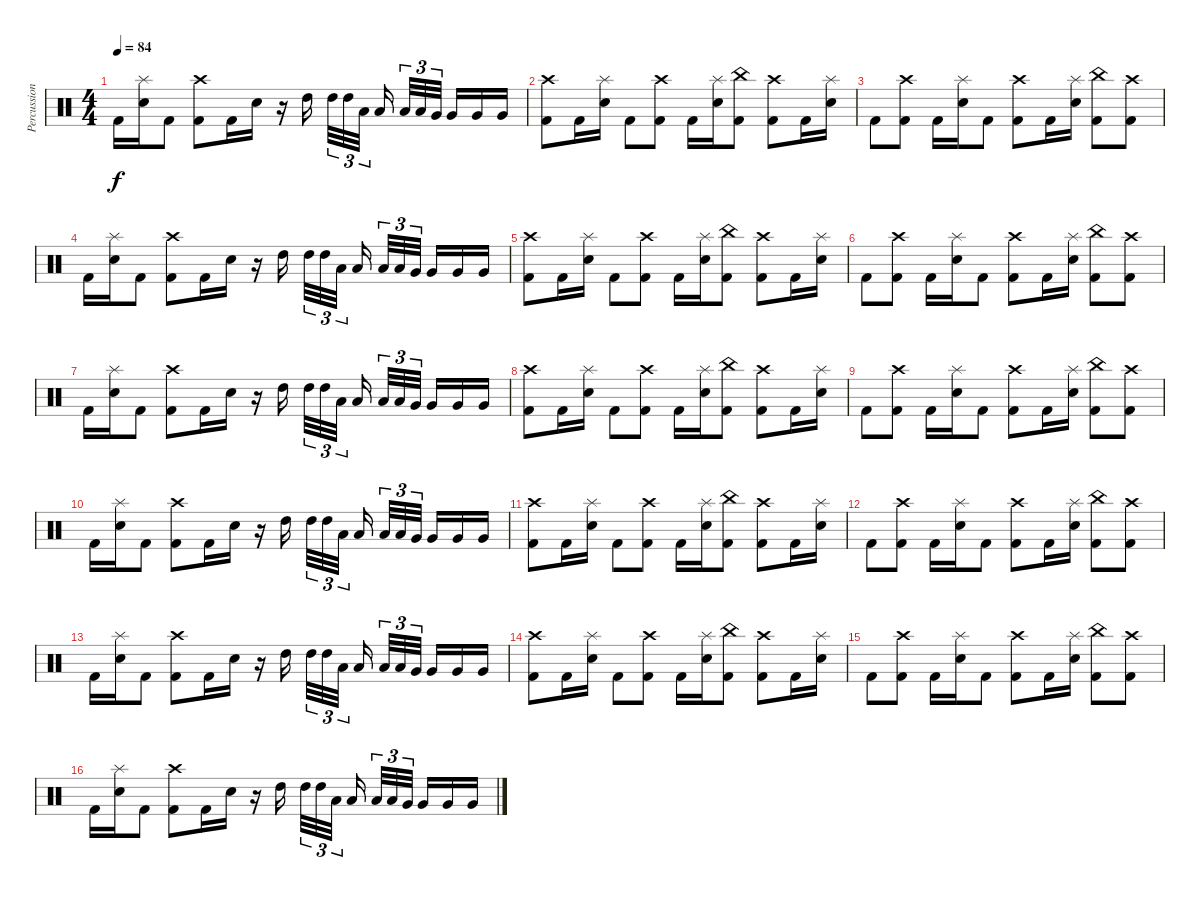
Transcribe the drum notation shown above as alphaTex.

\track ("Percussion" "Percussion") {instrument percussion}
\staff {score}
\articulation defaults
\ts (4 4)
\tempo 84
\clef neutral
\ks c "Kick (hit) 2".16{dy f}
("Splash (hit)" "Electric Snare (hit)").16 "Kick (hit) 2".8 ("Crash high (hit)" "Kick (hit) 2").8 "Kick (hit) 2".16 "Electric Snare (hit)".16 r.16 "High Tom (hit)".16 "High Tom (hit)".32{tu (3 2)} "High Tom (hit)".32{tu (3 2)} "Low Tom (hit)".32{tu (3 2)} "Low Tom (hit)".16 "Low Tom (hit)".32{tu (3 2)} "Low Tom (hit)".32{tu (3 2)} "Very Low Tom (hit)".32{tu (3 2)} "Very Low Tom (hit)".16 "Very Low Tom (hit)".16 "Very Low Tom (hit)".16 |
("Crash high (hit)" "Kick (hit) 2").8 "Kick (hit) 2".16 ("Splash (hit)" "Electric Snare (hit)").16 "Kick (hit) 2".8 ("Crash high (hit)" "Kick (hit) 2").8 "Kick (hit) 2".16 ("Splash (hit)" "Electric Snare (hit)").16 ("China (hit)" "Kick (hit) 2").8 ("Crash high (hit)" "Kick (hit) 2").8 "Kick (hit) 2".16 ("Splash (hit)" "Electric Snare (hit)").16 |
"Kick (hit) 2".8 ("Crash high (hit)" "Kick (hit) 2").8 "Kick (hit) 2".16 ("Splash (hit)" "Electric Snare (hit)").16 "Kick (hit) 2".8 ("Crash high (hit)" "Kick (hit) 2").8 "Kick (hit) 2".16 ("Splash (hit)" "Electric Snare (hit)").16 ("China (hit)" "Kick (hit) 2").8 ("Crash high (hit)" "Kick (hit) 2").8 |
"Kick (hit) 2".16 ("Splash (hit)" "Electric Snare (hit)").16 "Kick (hit) 2".8 ("Crash high (hit)" "Kick (hit) 2").8 "Kick (hit) 2".16 "Electric Snare (hit)".16 r.16 "High Tom (hit)".16 "High Tom (hit)".32{tu (3 2)} "High Tom (hit)".32{tu (3 2)} "Low Tom (hit)".32{tu (3 2)} "Low Tom (hit)".16 "Low Tom (hit)".32{tu (3 2)} "Low Tom (hit)".32{tu (3 2)} "Very Low Tom (hit)".32{tu (3 2)} "Very Low Tom (hit)".16 "Very Low Tom (hit)".16 "Very Low Tom (hit)".16 |
("Crash high (hit)" "Kick (hit) 2").8 "Kick (hit) 2".16 ("Splash (hit)" "Electric Snare (hit)").16 "Kick (hit) 2".8 ("Crash high (hit)" "Kick (hit) 2").8 "Kick (hit) 2".16 ("Splash (hit)" "Electric Snare (hit)").16 ("China (hit)" "Kick (hit) 2").8 ("Crash high (hit)" "Kick (hit) 2").8 "Kick (hit) 2".16 ("Splash (hit)" "Electric Snare (hit)").16 |
"Kick (hit) 2".8 ("Crash high (hit)" "Kick (hit) 2").8 "Kick (hit) 2".16 ("Splash (hit)" "Electric Snare (hit)").16 "Kick (hit) 2".8 ("Crash high (hit)" "Kick (hit) 2").8 "Kick (hit) 2".16 ("Splash (hit)" "Electric Snare (hit)").16 ("China (hit)" "Kick (hit) 2").8 ("Crash high (hit)" "Kick (hit) 2").8 |
"Kick (hit) 2".16 ("Splash (hit)" "Electric Snare (hit)").16 "Kick (hit) 2".8 ("Crash high (hit)" "Kick (hit) 2").8 "Kick (hit) 2".16 "Electric Snare (hit)".16 r.16 "High Tom (hit)".16 "High Tom (hit)".32{tu (3 2)} "High Tom (hit)".32{tu (3 2)} "Low Tom (hit)".32{tu (3 2)} "Low Tom (hit)".16 "Low Tom (hit)".32{tu (3 2)} "Low Tom (hit)".32{tu (3 2)} "Very Low Tom (hit)".32{tu (3 2)} "Very Low Tom (hit)".16 "Very Low Tom (hit)".16 "Very Low Tom (hit)".16 |
("Crash high (hit)" "Kick (hit) 2").8 "Kick (hit) 2".16 ("Splash (hit)" "Electric Snare (hit)").16 "Kick (hit) 2".8 ("Crash high (hit)" "Kick (hit) 2").8 "Kick (hit) 2".16 ("Splash (hit)" "Electric Snare (hit)").16 ("China (hit)" "Kick (hit) 2").8 ("Crash high (hit)" "Kick (hit) 2").8 "Kick (hit) 2".16 ("Splash (hit)" "Electric Snare (hit)").16 |
"Kick (hit) 2".8 ("Crash high (hit)" "Kick (hit) 2").8 "Kick (hit) 2".16 ("Splash (hit)" "Electric Snare (hit)").16 "Kick (hit) 2".8 ("Crash high (hit)" "Kick (hit) 2").8 "Kick (hit) 2".16 ("Splash (hit)" "Electric Snare (hit)").16 ("China (hit)" "Kick (hit) 2").8 ("Crash high (hit)" "Kick (hit) 2").8 |
"Kick (hit) 2".16 ("Splash (hit)" "Electric Snare (hit)").16 "Kick (hit) 2".8 ("Crash high (hit)" "Kick (hit) 2").8 "Kick (hit) 2".16 "Electric Snare (hit)".16 r.16 "High Tom (hit)".16 "High Tom (hit)".32{tu (3 2)} "High Tom (hit)".32{tu (3 2)} "Low Tom (hit)".32{tu (3 2)} "Low Tom (hit)".16 "Low Tom (hit)".32{tu (3 2)} "Low Tom (hit)".32{tu (3 2)} "Very Low Tom (hit)".32{tu (3 2)} "Very Low Tom (hit)".16 "Very Low Tom (hit)".16 "Very Low Tom (hit)".16 |
("Crash high (hit)" "Kick (hit) 2").8 "Kick (hit) 2".16 ("Splash (hit)" "Electric Snare (hit)").16 "Kick (hit) 2".8 ("Crash high (hit)" "Kick (hit) 2").8 "Kick (hit) 2".16 ("Splash (hit)" "Electric Snare (hit)").16 ("China (hit)" "Kick (hit) 2").8 ("Crash high (hit)" "Kick (hit) 2").8 "Kick (hit) 2".16 ("Splash (hit)" "Electric Snare (hit)").16 |
"Kick (hit) 2".8 ("Crash high (hit)" "Kick (hit) 2").8 "Kick (hit) 2".16 ("Splash (hit)" "Electric Snare (hit)").16 "Kick (hit) 2".8 ("Crash high (hit)" "Kick (hit) 2").8 "Kick (hit) 2".16 ("Splash (hit)" "Electric Snare (hit)").16 ("China (hit)" "Kick (hit) 2").8 ("Crash high (hit)" "Kick (hit) 2").8 |
"Kick (hit) 2".16 ("Splash (hit)" "Electric Snare (hit)").16 "Kick (hit) 2".8 ("Crash high (hit)" "Kick (hit) 2").8 "Kick (hit) 2".16 "Electric Snare (hit)".16 r.16 "High Tom (hit)".16 "High Tom (hit)".32{tu (3 2)} "High Tom (hit)".32{tu (3 2)} "Low Tom (hit)".32{tu (3 2)} "Low Tom (hit)".16 "Low Tom (hit)".32{tu (3 2)} "Low Tom (hit)".32{tu (3 2)} "Very Low Tom (hit)".32{tu (3 2)} "Very Low Tom (hit)".16 "Very Low Tom (hit)".16 "Very Low Tom (hit)".16 |
("Crash high (hit)" "Kick (hit) 2").8 "Kick (hit) 2".16 ("Splash (hit)" "Electric Snare (hit)").16 "Kick (hit) 2".8 ("Crash high (hit)" "Kick (hit) 2").8 "Kick (hit) 2".16 ("Splash (hit)" "Electric Snare (hit)").16 ("China (hit)" "Kick (hit) 2").8 ("Crash high (hit)" "Kick (hit) 2").8 "Kick (hit) 2".16 ("Splash (hit)" "Electric Snare (hit)").16 |
"Kick (hit) 2".8 ("Crash high (hit)" "Kick (hit) 2").8 "Kick (hit) 2".16 ("Splash (hit)" "Electric Snare (hit)").16 "Kick (hit) 2".8 ("Crash high (hit)" "Kick (hit) 2").8 "Kick (hit) 2".16 ("Splash (hit)" "Electric Snare (hit)").16 ("China (hit)" "Kick (hit) 2").8 ("Crash high (hit)" "Kick (hit) 2").8 |
"Kick (hit) 2".16 ("Splash (hit)" "Electric Snare (hit)").16 "Kick (hit) 2".8 ("Crash high (hit)" "Kick (hit) 2").8 "Kick (hit) 2".16 "Electric Snare (hit)".16 r.16 "High Tom (hit)".16 "High Tom (hit)".32{tu (3 2)} "High Tom (hit)".32{tu (3 2)} "Low Tom (hit)".32{tu (3 2)} "Low Tom (hit)".16 "Low Tom (hit)".32{tu (3 2)} "Low Tom (hit)".32{tu (3 2)} "Very Low Tom (hit)".32{tu (3 2)} "Very Low Tom (hit)".16 "Very Low Tom (hit)".16 "Very Low Tom (hit)".16
